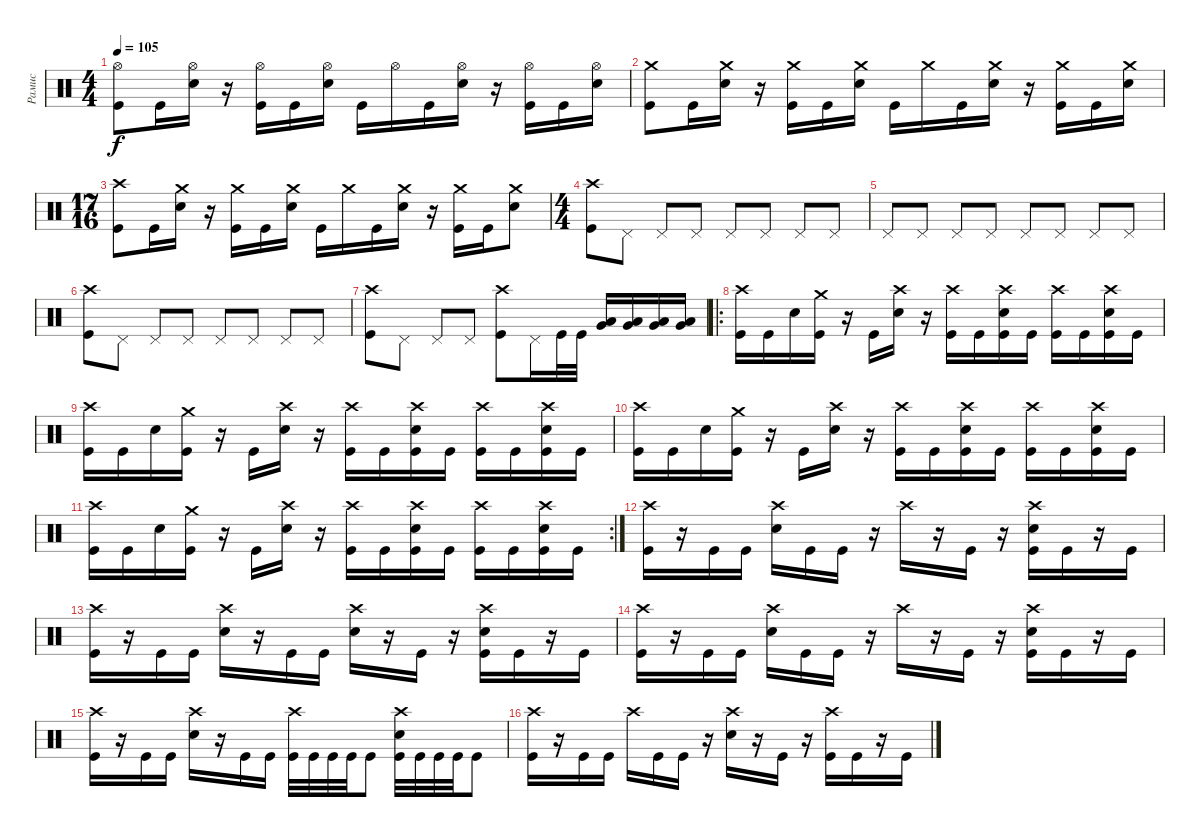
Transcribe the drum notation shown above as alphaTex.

\track ("Рамис" "Рамис") {instrument percussion}
\staff {score}
\articulation defaults
\ts (4 4)
\tempo 105
\clef neutral
\ks c
("Hi-Hat (open)" "Kick (hit)").8{dy f} "Kick (hit)".16 ("Hi-Hat (open)" "Electric Snare (hit)").16 r.16 ("Hi-Hat (open)" "Kick (hit)").16 "Kick (hit)".16 ("Hi-Hat (open)" "Electric Snare (hit)").16 "Kick (hit)".16 "Hi-Hat (open)".16 "Kick (hit)".16 ("Hi-Hat (open)" "Electric Snare (hit)").16 r.16 ("Hi-Hat (open)" "Kick (hit)").16 "Kick (hit)".16 ("Hi-Hat (open)" "Electric Snare (hit)").16 |
("Crash medium (hit)" "Kick (hit)").8 "Kick (hit)".16 ("Crash medium (hit)" "Electric Snare (hit)").16 r.16 ("Crash medium (hit)" "Kick (hit)").16 "Kick (hit)".16 ("Crash medium (hit)" "Electric Snare (hit)").16 "Kick (hit)".16 "Crash medium (hit)".16 "Kick (hit)".16 ("Crash medium (hit)" "Electric Snare (hit)").16 r.16 ("Crash medium (hit)" "Kick (hit)").16 "Kick (hit)".16 ("Crash medium (hit)" "Electric Snare (hit)").16 |
\ts (17 16)
("Crash high (hit)" "Kick (hit)").8 "Kick (hit)".16 ("Crash medium (hit)" "Electric Snare (hit)").16 r.16 ("Crash medium (hit)" "Kick (hit)").16 "Kick (hit)".16 ("Crash medium (hit)" "Electric Snare (hit)").16 "Kick (hit)".16 "Crash medium (hit)".16 "Kick (hit)".16 ("Crash medium (hit)" "Electric Snare (hit)").16 r.16 ("Crash medium (hit)" "Kick (hit)").16 "Kick (hit)".16 ("Crash medium (hit)" "Electric Snare (hit)").8 |
\ts (4 4)
("Crash high (hit)" "Kick (hit)").8 "Pedal Hi-Hat (hit)".8 "Pedal Hi-Hat (hit)".8 "Pedal Hi-Hat (hit)".8 "Pedal Hi-Hat (hit)".8 "Pedal Hi-Hat (hit)".8 "Pedal Hi-Hat (hit)".8 "Pedal Hi-Hat (hit)".8 |
"Pedal Hi-Hat (hit)".8 "Pedal Hi-Hat (hit)".8 "Pedal Hi-Hat (hit)".8 "Pedal Hi-Hat (hit)".8 "Pedal Hi-Hat (hit)".8 "Pedal Hi-Hat (hit)".8 "Pedal Hi-Hat (hit)".8 "Pedal Hi-Hat (hit)".8 |
("Crash high (hit)" "Kick (hit)").8 "Pedal Hi-Hat (hit)".8 "Pedal Hi-Hat (hit)".8 "Pedal Hi-Hat (hit)".8 "Pedal Hi-Hat (hit)".8 "Pedal Hi-Hat (hit)".8 "Pedal Hi-Hat (hit)".8 "Pedal Hi-Hat (hit)".8 |
("Crash high (hit)" "Kick (hit)").8 "Pedal Hi-Hat (hit)".8 "Pedal Hi-Hat (hit)".8 "Pedal Hi-Hat (hit)".8 ("Crash high (hit)" "Kick (hit)").8 "Pedal Hi-Hat (hit)".16 "Kick (hit)".32 "Kick (hit)".32 ("Very Low Tom (hit)" "Low Floor Tom (hit)").16 ("Very Low Tom (hit)" "Low Floor Tom (hit)").16 ("Very Low Tom (hit)" "Low Floor Tom (hit)").16 ("Very Low Tom (hit)" "Low Floor Tom (hit)").16 |
\ro
("Crash high (hit)" "Kick (hit)").16 "Kick (hit)".16 "Electric Snare (hit)".16 ("Crash medium (hit)" "Kick (hit)").16 r.16 "Kick (hit)".16 ("Crash high (hit)" "Electric Snare (hit)").16 r.16 ("Crash high (hit)" "Kick (hit)").16 "Kick (hit)".16 ("Crash high (hit)" "Electric Snare (hit)" "Kick (hit)").16 "Kick (hit)".16 ("Crash high (hit)" "Kick (hit)").16 "Kick (hit)".16 ("Crash high (hit)" "Electric Snare (hit)" "Kick (hit)").16 "Kick (hit)".16 |
("Crash high (hit)" "Kick (hit)").16 "Kick (hit)".16 "Electric Snare (hit)".16 ("Crash medium (hit)" "Kick (hit)").16 r.16 "Kick (hit)".16 ("Crash high (hit)" "Electric Snare (hit)").16 r.16 ("Crash high (hit)" "Kick (hit)").16 "Kick (hit)".16 ("Crash high (hit)" "Electric Snare (hit)" "Kick (hit)").16 "Kick (hit)".16 ("Crash high (hit)" "Kick (hit)").16 "Kick (hit)".16 ("Crash high (hit)" "Electric Snare (hit)" "Kick (hit)").16 "Kick (hit)".16 |
("Crash high (hit)" "Kick (hit)").16 "Kick (hit)".16 "Electric Snare (hit)".16 ("Crash medium (hit)" "Kick (hit)").16 r.16 "Kick (hit)".16 ("Crash high (hit)" "Electric Snare (hit)").16 r.16 ("Crash high (hit)" "Kick (hit)").16 "Kick (hit)".16 ("Crash high (hit)" "Electric Snare (hit)" "Kick (hit)").16 "Kick (hit)".16 ("Crash high (hit)" "Kick (hit)").16 "Kick (hit)".16 ("Crash high (hit)" "Electric Snare (hit)" "Kick (hit)").16 "Kick (hit)".16 |
\rc 2
("Crash high (hit)" "Kick (hit)").16 "Kick (hit)".16 "Electric Snare (hit)".16 ("Crash medium (hit)" "Kick (hit)").16 r.16 "Kick (hit)".16 ("Crash high (hit)" "Electric Snare (hit)").16 r.16 ("Crash high (hit)" "Kick (hit)").16 "Kick (hit)".16 ("Crash high (hit)" "Electric Snare (hit)" "Kick (hit)").16 "Kick (hit)".16 ("Crash high (hit)" "Kick (hit)").16 "Kick (hit)".16 ("Crash high (hit)" "Electric Snare (hit)" "Kick (hit)").16 "Kick (hit)".16 |
("Crash high (hit)" "Kick (hit)").16 r.16 "Kick (hit)".16 "Kick (hit)".16 ("Crash high (hit)" "Electric Snare (hit)").16 "Kick (hit)".16 "Kick (hit)".16 r.16 "Crash high (hit)".16 r.16 "Kick (hit)".16 r.16 ("Crash high (hit)" "Electric Snare (hit)" "Kick (hit)").16 "Kick (hit)".16 r.16 "Kick (hit)".16 |
("Crash high (hit)" "Kick (hit)").16 r.16 "Kick (hit)".16 "Kick (hit)".16 ("Crash high (hit)" "Electric Snare (hit)").16 r.16 "Kick (hit)".16 "Kick (hit)".16 ("Crash high (hit)" "Electric Snare (hit)").16 r.16 "Kick (hit)".16 r.16 ("Crash high (hit)" "Electric Snare (hit)" "Kick (hit)").16 "Kick (hit)".16 r.16 "Kick (hit)".16 |
("Crash high (hit)" "Kick (hit)").16 r.16 "Kick (hit)".16 "Kick (hit)".16 ("Crash high (hit)" "Electric Snare (hit)").16 "Kick (hit)".16 "Kick (hit)".16 r.16 "Crash high (hit)".16 r.16 "Kick (hit)".16 r.16 ("Crash high (hit)" "Electric Snare (hit)" "Kick (hit)").16 "Kick (hit)".16 r.16 "Kick (hit)".16 |
("Crash high (hit)" "Kick (hit)").16 r.16 "Kick (hit)".16 "Kick (hit)".16 ("Crash high (hit)" "Electric Snare (hit)").16 r.16 "Kick (hit)".16 "Kick (hit)".16 ("Crash high (hit)" "Kick (hit)").32 "Kick (hit)".32 "Kick (hit)".32 "Kick (hit)".32 "Kick (hit)".8 ("Crash high (hit)" "Electric Snare (hit)" "Kick (hit)").32 "Kick (hit)".32 "Kick (hit)".32 "Kick (hit)".32 "Kick (hit)".8 |
("Crash high (hit)" "Kick (hit)").16 r.16 "Kick (hit)".16 "Kick (hit)".16 "Crash high (hit)".16 "Kick (hit)".16 "Kick (hit)".16 r.16 ("Crash high (hit)" "Electric Snare (hit)").16 r.16 "Kick (hit)".16 r.16 ("Crash high (hit)" "Kick (hit)").16 "Kick (hit)".16 r.16 "Kick (hit)".16
